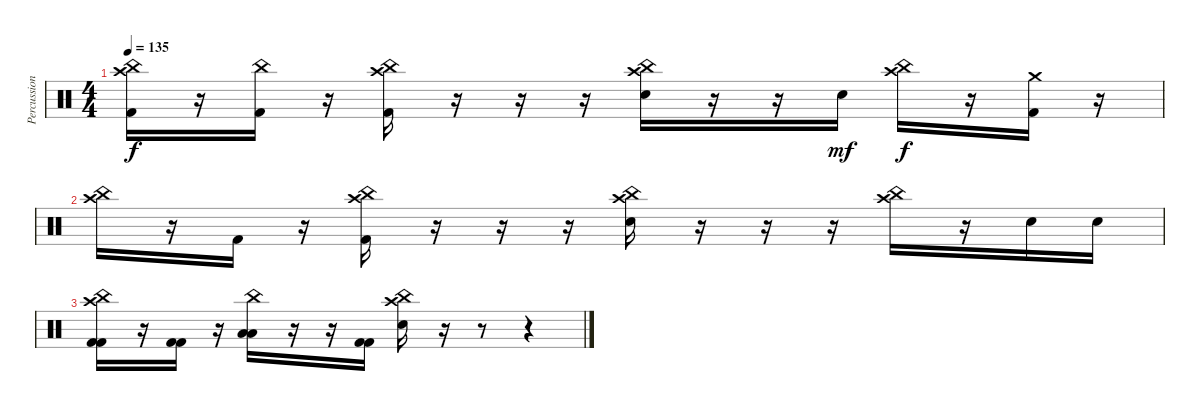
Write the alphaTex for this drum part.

\track ("Percussion" "Percussion") {instrument percussion}
\staff {score}
\articulation defaults
\ts (4 4)
\tempo 135
\clef neutral
\ks c
("Crash high (hit)" "China (hit)" "Kick (hit) 2").16{dy f} r.16 ("China (hit)" "Kick (hit) 2").16 r.16 ("Crash high (hit)" "China (hit)" "Kick (hit) 2").16 r.16 r.16 r.16 ("Crash high (hit)" "China (hit)" "Electric Snare (hit)").16 r.16 r.16 "Electric Snare (hit)".16{dy mf} ("Crash high (hit)" "China (hit)").16{dy f} r.16 ("Crash medium (hit)" "Kick (hit) 2").16 r.16 |
("Crash high (hit)" "China (hit)").16 r.16 "Kick (hit) 2".16 r.16 ("Crash high (hit)" "China (hit)" "Kick (hit) 2").16 r.16 r.16 r.16 ("Crash high (hit)" "China (hit)" "Electric Snare (hit)").16 r.16 r.16 r.16 ("Crash high (hit)" "China (hit)").16 r.16 "Electric Snare (hit)".16 "Electric Snare (hit)".16 |
("Crash high (hit)" "China (hit)" "Kick (hit) 2" "Kick (hit) 2").16 r.16 ("Kick (hit) 2" "Kick (hit) 2").16 r.16 ("China (hit)" "Low Floor Tom (hit)" "Low Tom (hit)").16 r.16 r.16 ("Kick (hit) 2" "Kick (hit) 2").16 ("Crash high (hit)" "China (hit)" "Electric Snare (hit)").16 r.16 r.8 r.4
